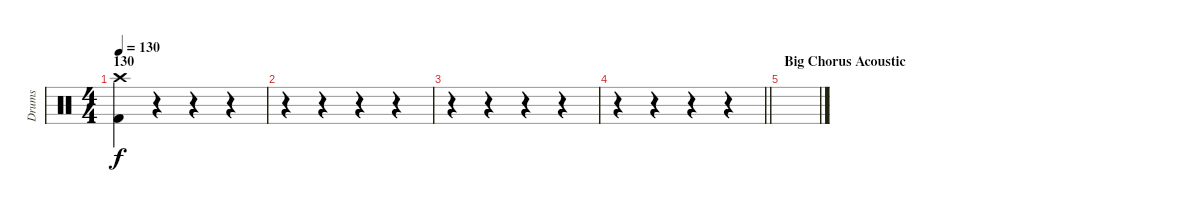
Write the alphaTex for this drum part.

\track ("Drums" "Drums") {instrument percussion}
\staff {score}
\articulation defaults
\ts (4 4)
\section ("" "130")
\tempo 130
\clef neutral
\ks c
("Crash high (hit)" "Kick (hit) 2").4{dy f} r.4 r.4 r.4 |
r.4 r.4 r.4 r.4 |
r.4 r.4 r.4 r.4 |
\barLineRight lightlight
r.4 r.4 r.4 r.4 |
\section ("" "Big Chorus Acoustic")
